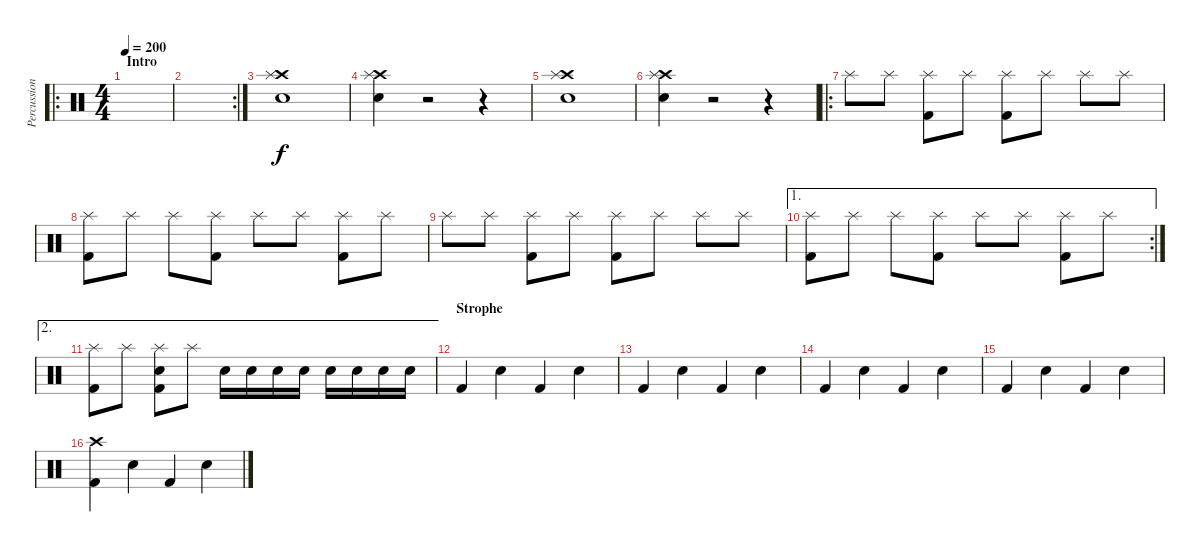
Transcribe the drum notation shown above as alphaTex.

\track ("Percussion" "Percussion") {instrument percussion}
\staff {score}
\articulation defaults
\ro
\ts (4 4)
\section ("" "Intro")
\tempo 200
\clef neutral
\ks c
|
\rc 2
|
("Crash high (hit)" "Splash (hit)" "Snare (hit) 2").1 |
("Crash high (hit)" "Splash (hit)" "Snare (hit) 2").4 r.2 r.4 |
("Crash high (hit)" "Splash (hit)" "Snare (hit) 2").1 |
("Crash high (hit)" "Splash (hit)" "Snare (hit) 2").4 r.2 r.4 |
\ro "Splash (hit)".8 "Splash (hit)".8
("Splash (hit)" "Kick (hit) 2").8 "Splash (hit)".8 ("Splash (hit)" "Kick (hit) 2").8 "Splash (hit)".8 "Splash (hit)".8 "Splash (hit)".8 |
("Splash (hit)" "Kick (hit) 2").8 "Splash (hit)".8 "Splash (hit)".8 ("Splash (hit)" "Kick (hit) 2").8 "Splash (hit)".8 "Splash (hit)".8 ("Splash (hit)" "Kick (hit) 2").8 "Splash (hit)".8 |
"Splash (hit)".8 "Splash (hit)".8 ("Splash (hit)" "Kick (hit) 2").8 "Splash (hit)".8 ("Splash (hit)" "Kick (hit) 2").8 "Splash (hit)".8 "Splash (hit)".8 "Splash (hit)".8 |
\ae 1
\rc 2
("Splash (hit)" "Kick (hit) 2").8 "Splash (hit)".8 "Splash (hit)".8 ("Splash (hit)" "Kick (hit) 2").8 "Splash (hit)".8 "Splash (hit)".8 ("Splash (hit)" "Kick (hit) 2").8 "Splash (hit)".8 |
\ae 2
("Splash (hit)" "Kick (hit) 2").8 "Splash (hit)".8 ("Splash (hit)" "Electric Snare (hit)" "Kick (hit) 2").8 "Splash (hit)".8 "Electric Snare (hit)".16 "Electric Snare (hit)".16 "Electric Snare (hit)".16 "Electric Snare (hit)".16 "Electric Snare (hit)".16 "Electric Snare (hit)".16 "Electric Snare (hit)".16 "Electric Snare (hit)".16 |
\section ("" "Strophe")
"Kick (hit) 2".4 "Electric Snare (hit)".4 "Kick (hit) 2".4 "Electric Snare (hit)".4 |
"Kick (hit) 2".4 "Electric Snare (hit)".4 "Kick (hit) 2".4 "Electric Snare (hit)".4 |
"Kick (hit) 2".4 "Electric Snare (hit)".4 "Kick (hit) 2".4 "Electric Snare (hit)".4 |
"Kick (hit) 2".4 "Electric Snare (hit)".4 "Kick (hit) 2".4 "Electric Snare (hit)".4 |
("Crash high (hit)" "Kick (hit) 2").4 "Electric Snare (hit)".4 "Kick (hit) 2".4 "Electric Snare (hit)".4
